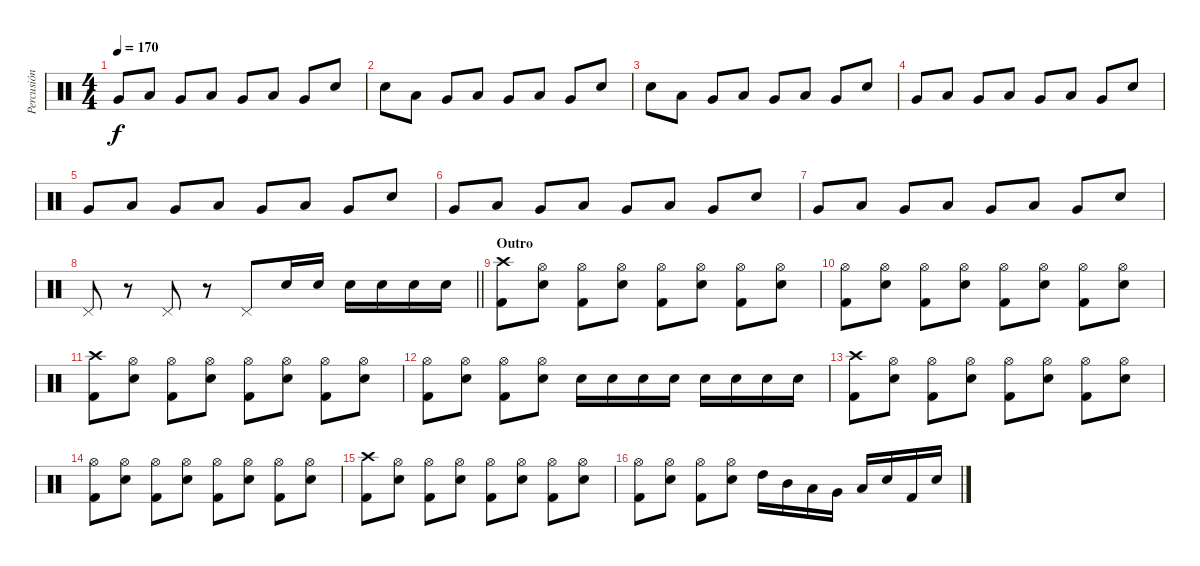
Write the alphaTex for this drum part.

\track ("Percusión" "Percusión") {instrument percussion}
\staff {score}
\articulation defaults
\ts (4 4)
\tempo 170
\clef neutral
\ks c "Very Low Tom (hit)".8{dy f} "Low Tom (hit)".8 "Very Low Tom (hit)".8 "Low Floor Tom (hit)".8 "Very Low Tom (hit)".8 "Low Tom (hit)".8 "Very Low Tom (hit)".8 "Electric Snare (hit)".8
|
"Electric Snare (hit)".8 "Low Tom (hit)".8 "Very Low Tom (hit)".8 "Low Floor Tom (hit)".8 "Very Low Tom (hit)".8 "Low Tom (hit)".8 "Very Low Tom (hit)".8 "Electric Snare (hit)".8 |
"Electric Snare (hit)".8 "Low Tom (hit)".8 "Very Low Tom (hit)".8 "Low Floor Tom (hit)".8 "Very Low Tom (hit)".8 "Low Tom (hit)".8 "Very Low Tom (hit)".8 "Electric Snare (hit)".8 |
"Very Low Tom (hit)".8 "Low Tom (hit)".8 "Very Low Tom (hit)".8 "Low Floor Tom (hit)".8 "Very Low Tom (hit)".8 "Low Tom (hit)".8 "Very Low Tom (hit)".8 "Electric Snare (hit)".8 |
"Very Low Tom (hit)".8 "Low Tom (hit)".8 "Very Low Tom (hit)".8 "Low Floor Tom (hit)".8 "Very Low Tom (hit)".8 "Low Tom (hit)".8 "Very Low Tom (hit)".8 "Electric Snare (hit)".8 |
"Very Low Tom (hit)".8 "Low Tom (hit)".8 "Very Low Tom (hit)".8 "Low Floor Tom (hit)".8 "Very Low Tom (hit)".8 "Low Tom (hit)".8 "Very Low Tom (hit)".8 "Electric Snare (hit)".8 |
"Very Low Tom (hit)".8 "Low Tom (hit)".8 "Very Low Tom (hit)".8 "Low Floor Tom (hit)".8 "Very Low Tom (hit)".8 "Low Tom (hit)".8 "Very Low Tom (hit)".8 "Electric Snare (hit)".8 |
\barLineRight lightlight "Pedal Hi-Hat (hit)".8
r.8 "Pedal Hi-Hat (hit)".8 r.8 "Pedal Hi-Hat (hit)".8 "Electric Snare (hit)".16 "Electric Snare (hit)".16 "Electric Snare (hit)".16 "Electric Snare (hit)".16 "Electric Snare (hit)".16 "Electric Snare (hit)".16 |
\section ("" "Outro")
("Crash high (hit)" "Kick (hit) 2").8 ("Hi-Hat (open)" "Electric Snare (hit)").8 ("Hi-Hat (open)" "Kick (hit) 2").8 ("Hi-Hat (open)" "Electric Snare (hit)").8 ("Hi-Hat (open)" "Kick (hit) 2").8 ("Hi-Hat (open)" "Electric Snare (hit)").8 ("Hi-Hat (open)" "Kick (hit) 2").8 ("Hi-Hat (open)" "Electric Snare (hit)").8 |
("Hi-Hat (open)" "Kick (hit) 2").8 ("Hi-Hat (open)" "Electric Snare (hit)").8 ("Hi-Hat (open)" "Kick (hit) 2").8 ("Hi-Hat (open)" "Electric Snare (hit)").8 ("Hi-Hat (open)" "Kick (hit) 2").8 ("Hi-Hat (open)" "Electric Snare (hit)").8 ("Hi-Hat (open)" "Kick (hit) 2").8 ("Hi-Hat (open)" "Electric Snare (hit)").8 |
("Crash high (hit)" "Kick (hit) 2").8 ("Hi-Hat (open)" "Electric Snare (hit)").8 ("Hi-Hat (open)" "Kick (hit) 2").8 ("Hi-Hat (open)" "Electric Snare (hit)").8 ("Hi-Hat (open)" "Kick (hit) 2").8 ("Hi-Hat (open)" "Electric Snare (hit)").8 ("Hi-Hat (open)" "Kick (hit) 2").8 ("Hi-Hat (open)" "Electric Snare (hit)").8 |
("Hi-Hat (open)" "Kick (hit) 2").8 ("Hi-Hat (open)" "Electric Snare (hit)").8 ("Hi-Hat (open)" "Kick (hit) 2").8 ("Hi-Hat (open)" "Electric Snare (hit)").8 "Electric Snare (hit)".16 "Electric Snare (hit)".16 "Electric Snare (hit)".16 "Electric Snare (hit)".16 "Electric Snare (hit)".16 "Electric Snare (hit)".16 "Electric Snare (hit)".16 "Electric Snare (hit)".16 |
("Crash high (hit)" "Kick (hit) 2").8 ("Hi-Hat (open)" "Electric Snare (hit)").8 ("Hi-Hat (open)" "Kick (hit) 2").8 ("Hi-Hat (open)" "Electric Snare (hit)").8 ("Hi-Hat (open)" "Kick (hit) 2").8 ("Hi-Hat (open)" "Electric Snare (hit)").8 ("Hi-Hat (open)" "Kick (hit) 2").8 ("Hi-Hat (open)" "Electric Snare (hit)").8 |
("Hi-Hat (open)" "Kick (hit) 2").8 ("Hi-Hat (open)" "Electric Snare (hit)").8 ("Hi-Hat (open)" "Kick (hit) 2").8 ("Hi-Hat (open)" "Electric Snare (hit)").8 ("Hi-Hat (open)" "Kick (hit) 2").8 ("Hi-Hat (open)" "Electric Snare (hit)").8 ("Hi-Hat (open)" "Kick (hit) 2").8 ("Hi-Hat (open)" "Electric Snare (hit)").8 |
("Crash high (hit)" "Kick (hit) 2").8 ("Hi-Hat (open)" "Electric Snare (hit)").8 ("Hi-Hat (open)" "Kick (hit) 2").8 ("Hi-Hat (open)" "Electric Snare (hit)").8 ("Hi-Hat (open)" "Kick (hit) 2").8 ("Hi-Hat (open)" "Electric Snare (hit)").8 ("Hi-Hat (open)" "Kick (hit) 2").8 ("Hi-Hat (open)" "Electric Snare (hit)").8 |
("Hi-Hat (open)" "Kick (hit) 2").8 ("Hi-Hat (open)" "Electric Snare (hit)").8 ("Hi-Hat (open)" "Kick (hit) 2").8 ("Hi-Hat (open)" "Electric Snare (hit)").8 "High Tom (hit)".16 "Mid Tom (hit)".16 "Low Tom (hit)".16 "Very Low Tom (hit)".16 "Low Floor Tom (hit)".16 "Electric Snare (hit)".16 "Kick (hit) 2".16 "Electric Snare (hit)".16
